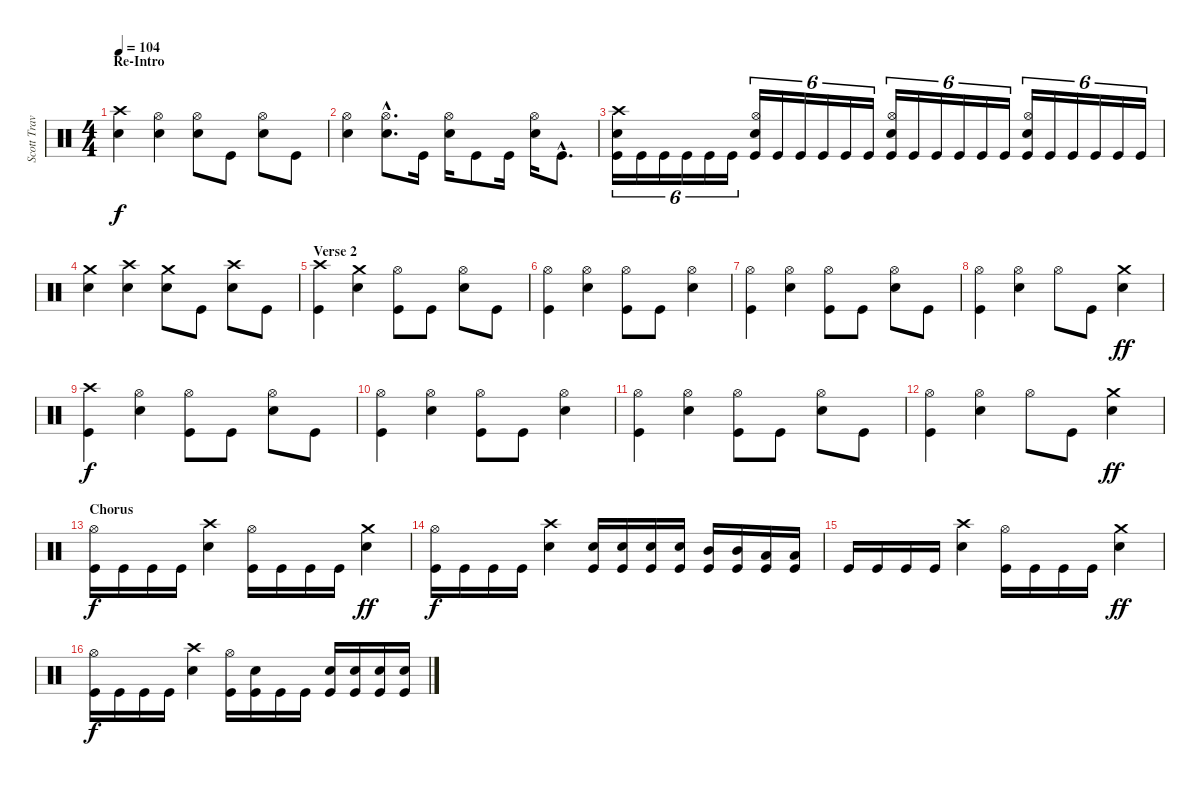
\track ("Scott Travis" "Scott Trav") {instrument percussion}
\staff {score}
\articulation defaults
\ts (4 4)
\section ("" "Re-Intro")
\tempo 104
\clef neutral
\ks c
("Crash high (hit)" "Electric Snare (hit)").4{dy f} ("Hi-Hat (open)" "Electric Snare (hit)").4 ("Hi-Hat (open)" "Electric Snare (hit)").8 "Kick (hit)".8 ("Hi-Hat (open)" "Electric Snare (hit)").8 "Kick (hit)".8 |
("Hi-Hat (open)" "Electric Snare (hit)").4 ("Hi-Hat (open)"{hac} "Electric Snare (hit)"{hac}).8{d} "Kick (hit)".16 ("Hi-Hat (open)" "Electric Snare (hit)").16 "Kick (hit)".8 "Kick (hit)".16 ("Hi-Hat (open)" "Electric Snare (hit)").16 "Kick (hit)"{hac}.8{d} |
("Crash high (hit)" "Electric Snare (hit)" "Kick (hit)").16{tu (6 4)} "Kick (hit)".16{tu (6 4)} "Kick (hit)".16{tu (6 4)} "Kick (hit)".16{tu (6 4)} "Kick (hit)".16{tu (6 4)} "Kick (hit)".16{tu (6 4)} ("Hi-Hat (open)" "Electric Snare (hit)" "Kick (hit)").16{tu (6 4)} "Kick (hit)".16{tu (6 4)} "Kick (hit)".16{tu (6 4)} "Kick (hit)".16{tu (6 4)} "Kick (hit)".16{tu (6 4)} "Kick (hit)".16{tu (6 4)} ("Hi-Hat (open)" "Electric Snare (hit)" "Kick (hit)").16{tu (6 4)} "Kick (hit)".16{tu (6 4)} "Kick (hit)".16{tu (6 4)} "Kick (hit)".16{tu (6 4)} "Kick (hit)".16{tu (6 4)} "Kick (hit)".16{tu (6 4)} ("Hi-Hat (open)" "Electric Snare (hit)" "Kick (hit)").16{tu (6 4)} "Kick (hit)".16{tu (6 4)} "Kick (hit)".16{tu (6 4)} "Kick (hit)".16{tu (6 4)} "Kick (hit)".16{tu (6 4)} "Kick (hit)".16{tu (6 4)} |
("Crash medium (hit)" "Electric Snare (hit)").4 ("Crash high (hit)" "Electric Snare (hit)").4 ("Crash medium (hit)" "Electric Snare (hit)").8 "Kick (hit)".8 ("Crash high (hit)" "Electric Snare (hit)").8 "Kick (hit)".8 |
\section ("" "Verse 2")
("Crash high (hit)" "Kick (hit)").4 ("Crash medium (hit)" "Electric Snare (hit)").4 ("Hi-Hat (open)" "Kick (hit)").8 "Kick (hit)".8 ("Hi-Hat (open)" "Electric Snare (hit)").8 "Kick (hit)".8 |
("Hi-Hat (open)" "Kick (hit)").4 ("Hi-Hat (open)" "Electric Snare (hit)").4 ("Hi-Hat (open)" "Kick (hit)").8 "Kick (hit)".8 ("Hi-Hat (open)" "Electric Snare (hit)").4 |
("Hi-Hat (open)" "Kick (hit)").4 ("Hi-Hat (open)" "Electric Snare (hit)").4 ("Hi-Hat (open)" "Kick (hit)").8 "Kick (hit)".8 ("Hi-Hat (open)" "Electric Snare (hit)").8 "Kick (hit)".8 |
("Hi-Hat (open)" "Kick (hit)").4 ("Hi-Hat (open)" "Electric Snare (hit)").4 "Hi-Hat (open)".8 "Kick (hit)".8 ("Crash medium (hit)" "Electric Snare (hit)").4{dy ff} |
("Crash high (hit)" "Kick (hit)").4{dy f} ("Hi-Hat (open)" "Electric Snare (hit)").4 ("Hi-Hat (open)" "Kick (hit)").8 "Kick (hit)".8 ("Hi-Hat (open)" "Electric Snare (hit)").8 "Kick (hit)".8 |
("Hi-Hat (open)" "Kick (hit)").4 ("Hi-Hat (open)" "Electric Snare (hit)").4 ("Hi-Hat (open)" "Kick (hit)").8 "Kick (hit)".8 ("Hi-Hat (open)" "Electric Snare (hit)").4 |
("Hi-Hat (open)" "Kick (hit)").4 ("Hi-Hat (open)" "Electric Snare (hit)").4 ("Hi-Hat (open)" "Kick (hit)").8 "Kick (hit)".8 ("Hi-Hat (open)" "Electric Snare (hit)").8 "Kick (hit)".8 |
("Hi-Hat (open)" "Kick (hit)").4 ("Hi-Hat (open)" "Electric Snare (hit)").4 "Hi-Hat (open)".8 "Kick (hit)".8 ("Crash medium (hit)" "Electric Snare (hit)").4{dy ff} |
\section ("" "Chorus")
("Hi-Hat (open)" "Kick (hit)").16{dy f} "Kick (hit)".16 "Kick (hit)".16 "Kick (hit)".16 ("Crash high (hit)" "Electric Snare (hit)").4 ("Hi-Hat (open)" "Kick (hit)").16 "Kick (hit)".16 "Kick (hit)".16 "Kick (hit)".16 ("Crash medium (hit)" "Electric Snare (hit)").4{dy ff} |
("Hi-Hat (open)" "Kick (hit)").16{dy f} "Kick (hit)".16 "Kick (hit)".16 "Kick (hit)".16 ("Crash high (hit)" "Electric Snare (hit)").4 ("Electric Snare (hit)" "Kick (hit)").16 ("Electric Snare (hit)" "Kick (hit)").16 ("Electric Snare (hit)" "Kick (hit)").16 ("Electric Snare (hit)" "Kick (hit)").16 ("Mid Tom (hit)" "Kick (hit)").16 ("Mid Tom (hit)" "Kick (hit)").16 ("Low Tom (hit)" "Kick (hit)").16 ("Low Tom (hit)" "Kick (hit)").16 |
"Kick (hit)".16 "Kick (hit)".16 "Kick (hit)".16 "Kick (hit)".16 ("Crash high (hit)" "Electric Snare (hit)").4 ("Hi-Hat (open)" "Kick (hit)").16 "Kick (hit)".16 "Kick (hit)".16 "Kick (hit)".16 ("Crash medium (hit)" "Electric Snare (hit)").4{dy ff} |
("Hi-Hat (open)" "Kick (hit)").16{dy f} "Kick (hit)".16 "Kick (hit)".16 "Kick (hit)".16 ("Crash high (hit)" "Electric Snare (hit)").4 ("Hi-Hat (open)" "Kick (hit)").16 ("Electric Snare (hit)" "Kick (hit)").16 "Kick (hit)".16 "Kick (hit)".16 ("Electric Snare (hit)" "Kick (hit)").16 ("Electric Snare (hit)" "Kick (hit)").16 ("Electric Snare (hit)" "Kick (hit)").16 ("Electric Snare (hit)" "Kick (hit)").16
